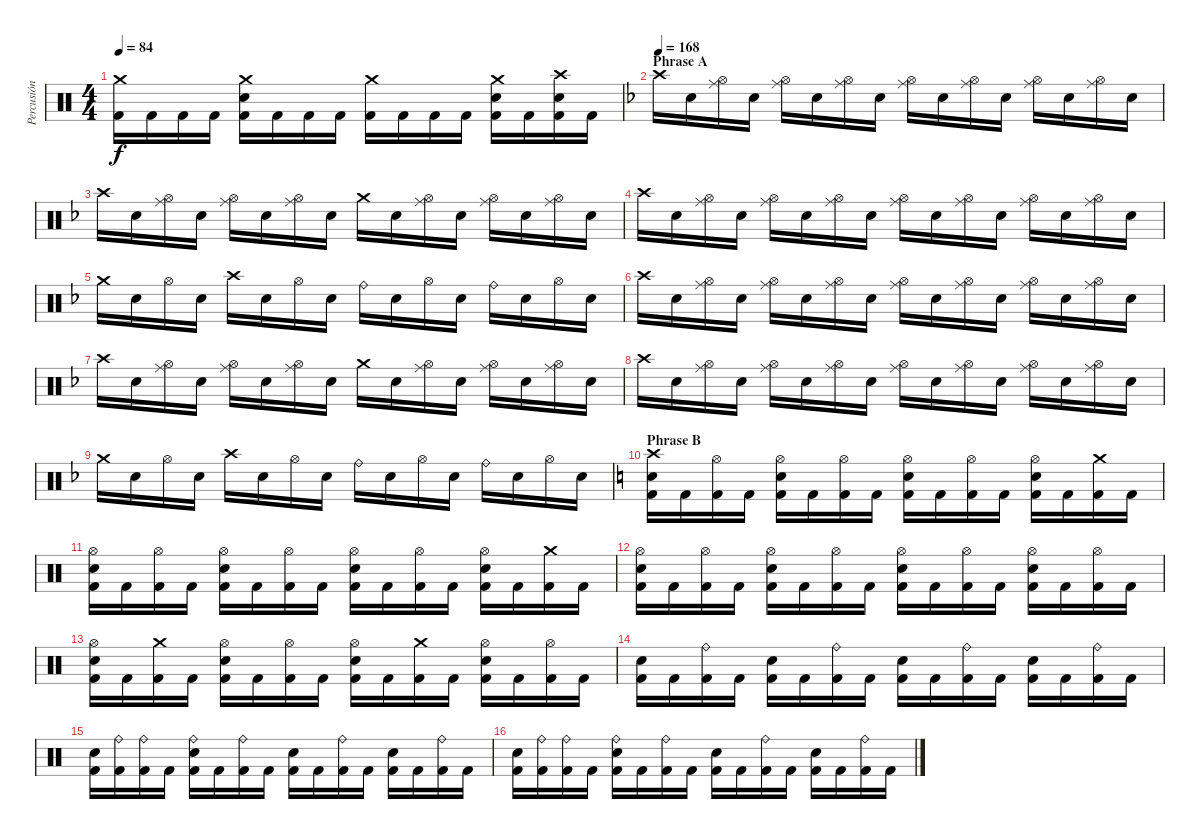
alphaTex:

\track ("Percusión" "Percusión") {instrument percussion}
\staff {score}
\articulation defaults
\ts (4 4)
\tempo 84
\clef neutral
\ks c
("Crash medium (hit)" "Kick (hit) 2").16{dy f} "Kick (hit) 2".16 "Kick (hit) 2".16 "Kick (hit) 2".16 ("Crash medium (hit)" "Electric Snare (hit)" "Kick (hit) 2").16 "Kick (hit) 2".16 "Kick (hit) 2".16 "Kick (hit) 2".16 ("Crash medium (hit)" "Kick (hit) 2").16 "Kick (hit) 2".16 "Kick (hit) 2".16 "Kick (hit) 2".16 ("Crash medium (hit)" "Electric Snare (hit)" "Kick (hit) 2").16 "Kick (hit) 2".16 ("Crash high (hit)" "Electric Snare (hit)" "Kick (hit) 2").16 "Kick (hit) 2".16 |
\section ("" "Phrase A")
\tempo 168
\ks f "Crash high (hit)".16 "Electric Snare (hit)".16
("Ride (middle)" "Hi-Hat (open)").16 "Electric Snare (hit)".16 ("Ride (middle)" "Hi-Hat (open)").16 "Electric Snare (hit)".16 ("Ride (middle)" "Hi-Hat (open)").16 "Electric Snare (hit)".16 ("Ride (middle)" "Hi-Hat (open)").16 "Electric Snare (hit)".16 ("Ride (middle)" "Hi-Hat (open)").16 "Electric Snare (hit)".16 ("Ride (middle)" "Hi-Hat (open)").16 "Electric Snare (hit)".16 ("Ride (middle)" "Hi-Hat (open)").16 "Electric Snare (hit)".16 |
"Crash high (hit)".16 "Electric Snare (hit)".16 ("Ride (middle)" "Hi-Hat (open)").16 "Electric Snare (hit)".16 ("Ride (middle)" "Hi-Hat (open)").16 "Electric Snare (hit)".16 ("Ride (middle)" "Hi-Hat (open)").16 "Electric Snare (hit)".16 "Crash medium (hit)".16 "Electric Snare (hit)".16 ("Ride (middle)" "Hi-Hat (open)").16 "Electric Snare (hit)".16 ("Ride (middle)" "Hi-Hat (open)").16 "Electric Snare (hit)".16 ("Ride (middle)" "Hi-Hat (open)").16 "Electric Snare (hit)".16 |
"Crash high (hit)".16 "Electric Snare (hit)".16 ("Ride (middle)" "Hi-Hat (open)").16 "Electric Snare (hit)".16 ("Ride (middle)" "Hi-Hat (open)").16 "Electric Snare (hit)".16 ("Ride (middle)" "Hi-Hat (open)").16 "Electric Snare (hit)".16 ("Ride (middle)" "Hi-Hat (open)").16 "Electric Snare (hit)".16 ("Ride (middle)" "Hi-Hat (open)").16 "Electric Snare (hit)".16 ("Ride (middle)" "Hi-Hat (open)").16 "Electric Snare (hit)".16 ("Ride (middle)" "Hi-Hat (open)").16 "Electric Snare (hit)".16 |
"Crash medium (hit)".16 "Electric Snare (hit)".16 "Hi-Hat (open)".16 "Electric Snare (hit)".16 "Crash high (hit)".16 "Electric Snare (hit)".16 "Hi-Hat (open)".16 "Electric Snare (hit)".16 "Ride (bell)".16 "Electric Snare (hit)".16 "Hi-Hat (open)".16 "Electric Snare (hit)".16 "Ride (bell)".16 "Electric Snare (hit)".16 "Hi-Hat (open)".16 "Electric Snare (hit)".16 |
"Crash high (hit)".16 "Electric Snare (hit)".16 ("Ride (middle)" "Hi-Hat (open)").16 "Electric Snare (hit)".16 ("Ride (middle)" "Hi-Hat (open)").16 "Electric Snare (hit)".16 ("Ride (middle)" "Hi-Hat (open)").16 "Electric Snare (hit)".16 ("Ride (middle)" "Hi-Hat (open)").16 "Electric Snare (hit)".16 ("Ride (middle)" "Hi-Hat (open)").16 "Electric Snare (hit)".16 ("Ride (middle)" "Hi-Hat (open)").16 "Electric Snare (hit)".16 ("Ride (middle)" "Hi-Hat (open)").16 "Electric Snare (hit)".16 |
"Crash high (hit)".16 "Electric Snare (hit)".16 ("Ride (middle)" "Hi-Hat (open)").16 "Electric Snare (hit)".16 ("Ride (middle)" "Hi-Hat (open)").16 "Electric Snare (hit)".16 ("Ride (middle)" "Hi-Hat (open)").16 "Electric Snare (hit)".16 "Crash medium (hit)".16 "Electric Snare (hit)".16 ("Ride (middle)" "Hi-Hat (open)").16 "Electric Snare (hit)".16 ("Ride (middle)" "Hi-Hat (open)").16 "Electric Snare (hit)".16 ("Ride (middle)" "Hi-Hat (open)").16 "Electric Snare (hit)".16 |
"Crash high (hit)".16 "Electric Snare (hit)".16 ("Ride (middle)" "Hi-Hat (open)").16 "Electric Snare (hit)".16 ("Ride (middle)" "Hi-Hat (open)").16 "Electric Snare (hit)".16 ("Ride (middle)" "Hi-Hat (open)").16 "Electric Snare (hit)".16 ("Ride (middle)" "Hi-Hat (open)").16 "Electric Snare (hit)".16 ("Ride (middle)" "Hi-Hat (open)").16 "Electric Snare (hit)".16 ("Ride (middle)" "Hi-Hat (open)").16 "Electric Snare (hit)".16 ("Ride (middle)" "Hi-Hat (open)").16 "Electric Snare (hit)".16 |
"Crash medium (hit)".16 "Electric Snare (hit)".16 "Hi-Hat (open)".16 "Electric Snare (hit)".16 "Crash high (hit)".16 "Electric Snare (hit)".16 "Hi-Hat (open)".16 "Electric Snare (hit)".16 "Ride (bell)".16 "Electric Snare (hit)".16 "Hi-Hat (open)".16 "Electric Snare (hit)".16 "Ride (bell)".16 "Electric Snare (hit)".16 "Hi-Hat (open)".16 "Electric Snare (hit)".16 |
\section ("" "Phrase B")
\ks c
("Electric Snare (hit)" "Crash high (hit)" "Kick (hit) 2").16 "Kick (hit) 2".16 ("Hi-Hat (open)" "Kick (hit) 2").16 "Kick (hit) 2".16 ("Electric Snare (hit)" "Hi-Hat (open)" "Kick (hit) 2").16 "Kick (hit) 2".16 ("Hi-Hat (open)" "Kick (hit) 2").16 "Kick (hit) 2".16 ("Electric Snare (hit)" "Hi-Hat (open)" "Kick (hit) 2").16 "Kick (hit) 2".16 ("Hi-Hat (open)" "Kick (hit) 2").16 "Kick (hit) 2".16 ("Electric Snare (hit)" "Hi-Hat (open)" "Kick (hit) 2").16 "Kick (hit) 2".16 ("Crash medium (hit)" "Kick (hit) 2").16 "Kick (hit) 2".16 |
("Electric Snare (hit)" "Hi-Hat (open)" "Kick (hit) 2").16 "Kick (hit) 2".16 ("Hi-Hat (open)" "Kick (hit) 2").16 "Kick (hit) 2".16 ("Electric Snare (hit)" "Hi-Hat (open)" "Kick (hit) 2").16 "Kick (hit) 2".16 ("Hi-Hat (open)" "Kick (hit) 2").16 "Kick (hit) 2".16 ("Electric Snare (hit)" "Hi-Hat (open)" "Kick (hit) 2").16 "Kick (hit) 2".16 ("Hi-Hat (open)" "Kick (hit) 2").16 "Kick (hit) 2".16 ("Electric Snare (hit)" "Hi-Hat (open)" "Kick (hit) 2").16 "Kick (hit) 2".16 ("Crash medium (hit)" "Kick (hit) 2").16 "Kick (hit) 2".16 |
("Electric Snare (hit)" "Hi-Hat (open)" "Kick (hit) 2").16 "Kick (hit) 2".16 ("Hi-Hat (open)" "Kick (hit) 2").16 "Kick (hit) 2".16 ("Electric Snare (hit)" "Hi-Hat (open)" "Kick (hit) 2").16 "Kick (hit) 2".16 ("Hi-Hat (open)" "Kick (hit) 2").16 "Kick (hit) 2".16 ("Electric Snare (hit)" "Hi-Hat (open)" "Kick (hit) 2").16 "Kick (hit) 2".16 ("Hi-Hat (open)" "Kick (hit) 2").16 "Kick (hit) 2".16 ("Electric Snare (hit)" "Hi-Hat (open)" "Kick (hit) 2").16 "Kick (hit) 2".16 ("Hi-Hat (open)" "Kick (hit) 2").16 "Kick (hit) 2".16 |
("Electric Snare (hit)" "Hi-Hat (open)" "Kick (hit) 2").16 "Kick (hit) 2".16 ("Crash medium (hit)" "Kick (hit) 2").16 "Kick (hit) 2".16 ("Electric Snare (hit)" "Hi-Hat (open)" "Kick (hit) 2").16 "Kick (hit) 2".16 ("Hi-Hat (open)" "Kick (hit) 2").16 "Kick (hit) 2".16 ("Electric Snare (hit)" "Hi-Hat (open)" "Kick (hit) 2").16 "Kick (hit) 2".16 ("Crash medium (hit)" "Kick (hit) 2").16 "Kick (hit) 2".16 ("Electric Snare (hit)" "Hi-Hat (open)" "Kick (hit) 2").16 "Kick (hit) 2".16 ("Hi-Hat (open)" "Kick (hit) 2").16 "Kick (hit) 2".16 |
("Electric Snare (hit)" "Kick (hit) 2").16 "Kick (hit) 2".16 ("Ride (bell)" "Kick (hit) 2").16 "Kick (hit) 2".16 ("Electric Snare (hit)" "Kick (hit) 2").16 "Kick (hit) 2".16 ("Ride (bell)" "Kick (hit) 2").16 "Kick (hit) 2".16 ("Electric Snare (hit)" "Kick (hit) 2").16 "Kick (hit) 2".16 ("Ride (bell)" "Kick (hit) 2").16 "Kick (hit) 2".16 ("Electric Snare (hit)" "Kick (hit) 2").16 "Kick (hit) 2".16 ("Ride (bell)" "Kick (hit) 2").16 "Kick (hit) 2".16 |
("Electric Snare (hit)" "Kick (hit) 2").16 ("Ride (bell)" "Kick (hit) 2").16 ("Ride (bell)" "Kick (hit) 2").16 "Kick (hit) 2".16 ("Electric Snare (hit)" "Ride (bell)" "Kick (hit) 2").16 "Kick (hit) 2".16 ("Ride (bell)" "Kick (hit) 2").16 "Kick (hit) 2".16 ("Electric Snare (hit)" "Kick (hit) 2").16 "Kick (hit) 2".16 ("Ride (bell)" "Kick (hit) 2").16 "Kick (hit) 2".16 ("Electric Snare (hit)" "Kick (hit) 2").16 "Kick (hit) 2".16 ("Ride (bell)" "Kick (hit) 2").16 "Kick (hit) 2".16 |
("Electric Snare (hit)" "Kick (hit) 2").16 ("Ride (bell)" "Kick (hit) 2").16 ("Ride (bell)" "Kick (hit) 2").16 "Kick (hit) 2".16 ("Electric Snare (hit)" "Ride (bell)" "Kick (hit) 2").16 "Kick (hit) 2".16 ("Ride (bell)" "Kick (hit) 2").16 "Kick (hit) 2".16 ("Electric Snare (hit)" "Kick (hit) 2").16 "Kick (hit) 2".16 ("Ride (bell)" "Kick (hit) 2").16 "Kick (hit) 2".16 ("Electric Snare (hit)" "Kick (hit) 2").16 "Kick (hit) 2".16 ("Ride (bell)" "Kick (hit) 2").16 "Kick (hit) 2".16
